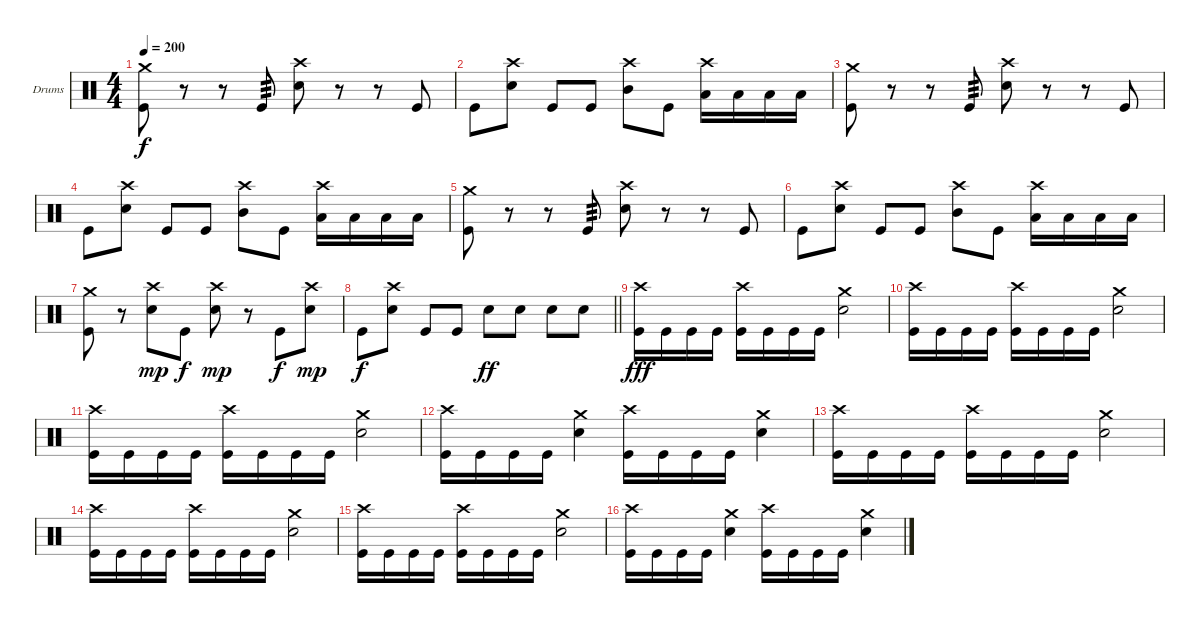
\bracketExtendMode groupsimilarinstruments
\firstSystemTrackNameOrientation horizontal
\otherSystemsTrackNameOrientation horizontal
\track ("Drumkit" "Drums") {instrument percussion}
\staff {score}
\articulation defaults
\ts (4 4)
\tempo 200
\clef neutral
\ks c
("Crash medium (hit)" "Kick (hit)").8{dy f} r.8 r.8 "Kick (hit)".8{tp 3} ("Crash high (hit)" "Snare (hit) 2").8 r.8 r.8 "Kick (hit)".8 |
"Kick (hit)".8 ("Crash high (hit)" "Snare (hit) 2").8 "Kick (hit)".8 "Kick (hit)".8 ("Crash high (hit)" "Mid Tom (hit)").8 "Kick (hit)".8 ("Crash high (hit)" "Low Tom (hit)").16 "Low Tom (hit)".16 "Low Tom (hit)".16 "Low Tom (hit)".16 |
("Crash medium (hit)" "Kick (hit)").8 r.8 r.8 "Kick (hit)".8{tp 3} ("Crash high (hit)" "Snare (hit) 2").8 r.8 r.8 "Kick (hit)".8 |
"Kick (hit)".8 ("Crash high (hit)" "Snare (hit) 2").8 "Kick (hit)".8 "Kick (hit)".8 ("Crash high (hit)" "Mid Tom (hit)").8 "Kick (hit)".8 ("Crash high (hit)" "Low Tom (hit)").16 "Low Tom (hit)".16 "Low Tom (hit)".16 "Low Tom (hit)".16 |
("Crash medium (hit)" "Kick (hit)").8 r.8 r.8 "Kick (hit)".8{tp 3} ("Crash high (hit)" "Snare (hit) 2").8 r.8 r.8 "Kick (hit)".8 |
"Kick (hit)".8 ("Crash high (hit)" "Snare (hit) 2").8 "Kick (hit)".8 "Kick (hit)".8 ("Crash high (hit)" "Mid Tom (hit)").8 "Kick (hit)".8 ("Crash high (hit)" "Low Tom (hit)").16 "Low Tom (hit)".16 "Low Tom (hit)".16 "Low Tom (hit)".16 |
("Crash medium (hit)" "Kick (hit)").8 r.8 ("Crash high (hit)" "Snare (hit) 2").8{dy mp} "Kick (hit)".8{dy f} ("Crash high (hit)" "Snare (hit) 2").8{dy mp} r.8 "Kick (hit)".8{dy f} ("Crash high (hit)" "Snare (hit) 2").8{dy mp} |
\barLineRight lightlight "Kick (hit)".8{dy f}
("Crash high (hit)" "Snare (hit) 2").8 "Kick (hit)".8 "Kick (hit)".8 "Snare (hit) 2".8{dy ff} "Snare (hit) 2".8 "Snare (hit) 2".8 "Snare (hit) 2".8 |
\section ("" "")
("Crash high (hit)" "Kick (hit)").16{dy fff} "Kick (hit)".16 "Kick (hit)".16 "Kick (hit)".16 ("Crash high (hit)" "Kick (hit)").16 "Kick (hit)".16 "Kick (hit)".16 "Kick (hit)".16 ("Crash medium (hit)" "Snare (hit) 2").2 |
("Crash high (hit)" "Kick (hit)").16 "Kick (hit)".16 "Kick (hit)".16 "Kick (hit)".16 ("Crash high (hit)" "Kick (hit)").16 "Kick (hit)".16 "Kick (hit)".16 "Kick (hit)".16 ("Crash medium (hit)" "Snare (hit) 2").2 |
("Crash high (hit)" "Kick (hit)").16 "Kick (hit)".16 "Kick (hit)".16 "Kick (hit)".16 ("Crash high (hit)" "Kick (hit)").16 "Kick (hit)".16 "Kick (hit)".16 "Kick (hit)".16 ("Crash medium (hit)" "Snare (hit) 2").2 |
("Crash high (hit)" "Kick (hit)").16 "Kick (hit)".16 "Kick (hit)".16 "Kick (hit)".16 ("Crash medium (hit)" "Snare (hit) 2").4 ("Crash high (hit)" "Kick (hit)").16 "Kick (hit)".16 "Kick (hit)".16 "Kick (hit)".16 ("Crash medium (hit)" "Snare (hit) 2").4 |
("Crash high (hit)" "Kick (hit)").16 "Kick (hit)".16 "Kick (hit)".16 "Kick (hit)".16 ("Crash high (hit)" "Kick (hit)").16 "Kick (hit)".16 "Kick (hit)".16 "Kick (hit)".16 ("Crash medium (hit)" "Snare (hit) 2").2 |
("Crash high (hit)" "Kick (hit)").16 "Kick (hit)".16 "Kick (hit)".16 "Kick (hit)".16 ("Crash high (hit)" "Kick (hit)").16 "Kick (hit)".16 "Kick (hit)".16 "Kick (hit)".16 ("Crash medium (hit)" "Snare (hit) 2").2 |
("Crash high (hit)" "Kick (hit)").16 "Kick (hit)".16 "Kick (hit)".16 "Kick (hit)".16 ("Crash high (hit)" "Kick (hit)").16 "Kick (hit)".16 "Kick (hit)".16 "Kick (hit)".16 ("Crash medium (hit)" "Snare (hit) 2").2 |
("Crash high (hit)" "Kick (hit)").16 "Kick (hit)".16 "Kick (hit)".16 "Kick (hit)".16 ("Crash medium (hit)" "Snare (hit) 2").4 ("Crash high (hit)" "Kick (hit)").16 "Kick (hit)".16 "Kick (hit)".16 "Kick (hit)".16 ("Crash medium (hit)" "Snare (hit) 2").4
